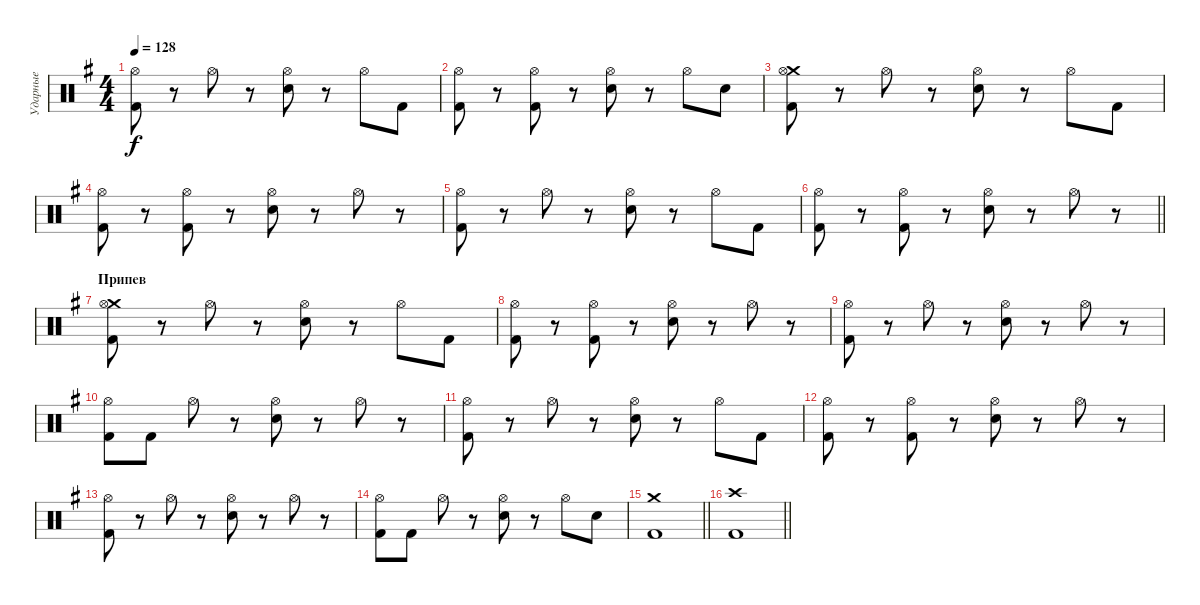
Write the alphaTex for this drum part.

\track ("Ударные" "Ударные") {instrument percussion}
\staff {score}
\articulation defaults
\ts (4 4)
\tempo 128
\clef neutral
\ks eminor
("Hi-Hat (open)" "Kick (hit) 2").8{dy f} r.8 "Hi-Hat (open)".8 r.8 ("Hi-Hat (open)" "Electric Snare (hit)").8 r.8 "Hi-Hat (open)".8 "Kick (hit) 2".8 |
("Hi-Hat (open)" "Kick (hit) 2").8 r.8 ("Hi-Hat (open)" "Kick (hit) 2").8 r.8 ("Hi-Hat (open)" "Electric Snare (hit)").8 r.8 "Hi-Hat (open)".8 "Electric Snare (hit)".8 |
("Crash medium (hit)" "Hi-Hat (open)" "Kick (hit) 2").8 r.8 "Hi-Hat (open)".8 r.8 ("Hi-Hat (open)" "Electric Snare (hit)").8 r.8 "Hi-Hat (open)".8 "Kick (hit) 2".8 |
("Hi-Hat (open)" "Kick (hit) 2").8 r.8 ("Hi-Hat (open)" "Kick (hit) 2").8 r.8 ("Hi-Hat (open)" "Electric Snare (hit)").8 r.8 "Hi-Hat (open)".8 r.8 |
("Hi-Hat (open)" "Kick (hit) 2").8 r.8 "Hi-Hat (open)".8 r.8 ("Hi-Hat (open)" "Electric Snare (hit)").8 r.8 "Hi-Hat (open)".8 "Kick (hit) 2".8 |
\barLineRight lightlight
("Hi-Hat (open)" "Kick (hit) 2").8 r.8 ("Hi-Hat (open)" "Kick (hit) 2").8 r.8 ("Hi-Hat (open)" "Electric Snare (hit)").8 r.8 "Hi-Hat (open)".8 r.8 |
\section ("" "Припев")
("Crash medium (hit)" "Hi-Hat (open)" "Kick (hit) 2").8 r.8 "Hi-Hat (open)".8 r.8 ("Hi-Hat (open)" "Electric Snare (hit)").8 r.8 "Hi-Hat (open)".8 "Kick (hit) 2".8 |
("Hi-Hat (open)" "Kick (hit) 2").8 r.8 ("Hi-Hat (open)" "Kick (hit) 2").8 r.8 ("Hi-Hat (open)" "Electric Snare (hit)").8 r.8 "Hi-Hat (open)".8 r.8 |
("Hi-Hat (open)" "Kick (hit) 2").8 r.8 "Hi-Hat (open)".8 r.8 ("Hi-Hat (open)" "Electric Snare (hit)").8 r.8 "Hi-Hat (open)".8 r.8 |
("Hi-Hat (open)" "Kick (hit) 2").8 "Kick (hit) 2".8 "Hi-Hat (open)".8 r.8 ("Hi-Hat (open)" "Electric Snare (hit)").8 r.8 "Hi-Hat (open)".8 r.8 |
("Hi-Hat (open)" "Kick (hit) 2").8 r.8 "Hi-Hat (open)".8 r.8 ("Hi-Hat (open)" "Electric Snare (hit)").8 r.8 "Hi-Hat (open)".8 "Kick (hit) 2".8 |
("Hi-Hat (open)" "Kick (hit) 2").8 r.8 ("Hi-Hat (open)" "Kick (hit) 2").8 r.8 ("Hi-Hat (open)" "Electric Snare (hit)").8 r.8 "Hi-Hat (open)".8 r.8 |
("Hi-Hat (open)" "Kick (hit) 2").8 r.8 "Hi-Hat (open)".8 r.8 ("Hi-Hat (open)" "Electric Snare (hit)").8 r.8 "Hi-Hat (open)".8 r.8 |
("Hi-Hat (open)" "Kick (hit) 2").8 "Kick (hit) 2".8 "Hi-Hat (open)".8 r.8 ("Hi-Hat (open)" "Electric Snare (hit)").8 r.8 "Hi-Hat (open)".8 "Electric Snare (hit)".8 |
\barLineRight lightlight
("Crash medium (hit)" "Kick (hit) 2").1 |
\barLineRight lightlight
("Crash high (hit)" "Kick (hit) 2").1
